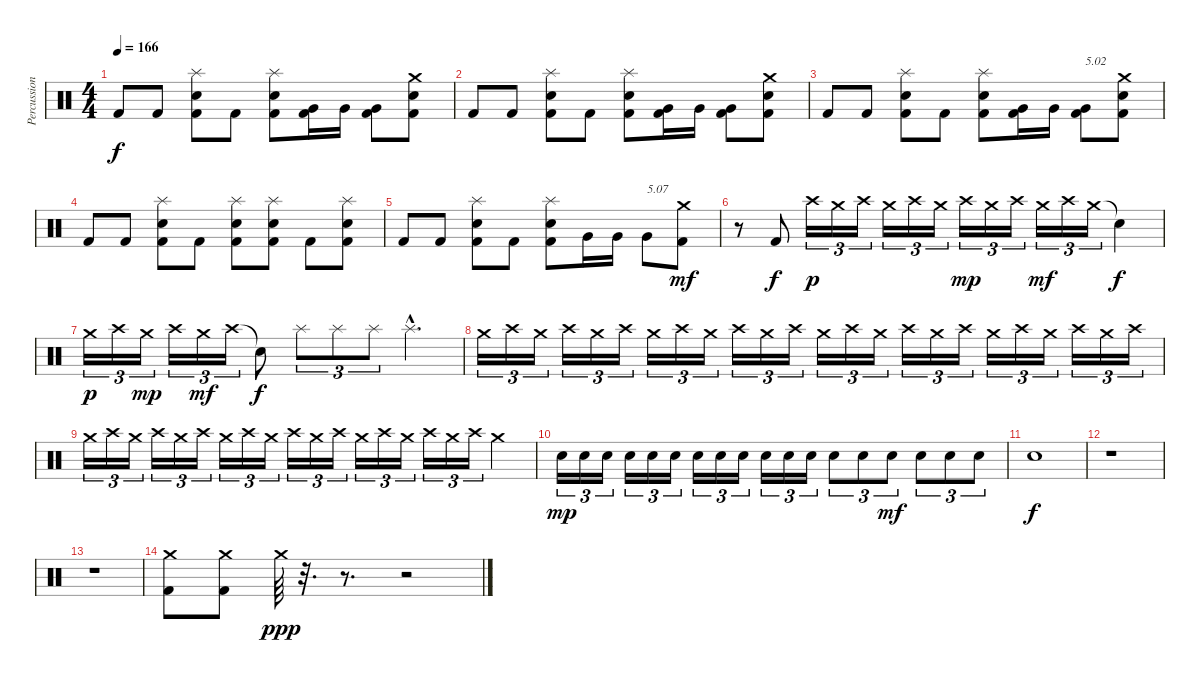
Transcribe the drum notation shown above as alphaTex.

\track ("Percussions" "Percussion") {instrument percussion}
\staff {score}
\articulation defaults
\ts (4 4)
\tempo 166
\clef neutral
\ks c "Kick (hit) 2".8{dy f} "Kick (hit) 2".8
("Kick (hit) 2" "Electric Snare (hit)" "Splash (hit)").8 "Kick (hit) 2".8 ("Kick (hit) 2" "Electric Snare (hit)" "Splash (hit)").8 ("Kick (hit) 2" "Very Low Tom (hit)").16 "Very Low Tom (hit)".16 ("Kick (hit) 2" "Very Low Tom (hit)").8 ("Kick (hit) 2" "Electric Snare (hit)" "Crash medium (hit)").8 |
"Kick (hit) 2".8 "Kick (hit) 2".8 ("Kick (hit) 2" "Electric Snare (hit)" "Splash (hit)").8 "Kick (hit) 2".8 ("Kick (hit) 2" "Electric Snare (hit)" "Splash (hit)").8 ("Kick (hit) 2" "Very Low Tom (hit)").16 "Very Low Tom (hit)".16 ("Kick (hit) 2" "Very Low Tom (hit)").8 ("Kick (hit) 2" "Electric Snare (hit)" "Crash medium (hit)").8 |
"Kick (hit) 2".8 "Kick (hit) 2".8 ("Kick (hit) 2" "Electric Snare (hit)" "Splash (hit)").8 "Kick (hit) 2".8 ("Kick (hit) 2" "Electric Snare (hit)" "Splash (hit)").8 ("Kick (hit) 2" "Very Low Tom (hit)").16 "Very Low Tom (hit)".16 ("Kick (hit) 2" "Very Low Tom (hit)").8{txt "5.02"} ("Kick (hit) 2" "Electric Snare (hit)" "Crash medium (hit)").8 |
"Kick (hit) 2".8 "Kick (hit) 2".8 ("Kick (hit) 2" "Electric Snare (hit)" "Splash (hit)").8 "Kick (hit) 2".8 ("Kick (hit) 2" "Electric Snare (hit)" "Splash (hit)").8 ("Kick (hit) 2" "Electric Snare (hit)" "Splash (hit)").8 "Kick (hit) 2".8 ("Kick (hit) 2" "Electric Snare (hit)" "Splash (hit)").8 |
"Kick (hit) 2".8 "Kick (hit) 2".8 ("Kick (hit) 2" "Electric Snare (hit)" "Splash (hit)").8 "Kick (hit) 2".8 ("Kick (hit) 2" "Electric Snare (hit)" "Splash (hit)").8 "Very Low Tom (hit)".16 "Very Low Tom (hit)".16 "Very Low Tom (hit)".8{txt "5.07"} ("Kick (hit) 2" "Crash medium (hit)").8{dy mf} |
r.8 "Kick (hit) 2".8{dy f} "Crash high (hit)".16{tu (3 2) dy p} "Crash medium (hit)".16{tu (3 2)} "Crash high (hit)".16{tu (3 2)} "Crash medium (hit)".16{tu (3 2)} "Crash high (hit)".16{tu (3 2)} "Crash medium (hit)".16{tu (3 2)} "Crash high (hit)".16{tu (3 2) dy mp} "Crash medium (hit)".16{tu (3 2)} "Crash high (hit)".16{tu (3 2)} "Crash medium (hit)".16{tu (3 2) dy mf} "Crash high (hit)".16{tu (3 2)} "Crash medium (hit)".16{tu (3 2)} "Snare (hit)"{t}.4{dy f} |
"Crash medium (hit)".16{tu (3 2) dy p} "Crash high (hit)".16{tu (3 2)} "Crash medium (hit)".16{tu (3 2) dy mp} "Crash high (hit)".16{tu (3 2)} "Crash medium (hit)".16{tu (3 2) dy mf} "Crash high (hit)".16{tu (3 2)} "Snare (hit)"{t}.8{dy f} "Splash (hit)".8{tu (3 2)} "Splash (hit)".8{tu (3 2)} "Splash (hit)".8{tu (3 2)} "Splash (hit)"{hac}.4{d} |
"Crash medium (hit)".16{tu (3 2) volume 5} "Crash high (hit)".16{tu (3 2) volume 15} "Crash medium (hit)".16{tu (3 2)} "Crash high (hit)".16{tu (3 2)} "Crash medium (hit)".16{tu (3 2)} "Crash high (hit)".16{tu (3 2)} "Crash medium (hit)".16{tu (3 2)} "Crash high (hit)".16{tu (3 2)} "Crash medium (hit)".16{tu (3 2)} "Crash high (hit)".16{tu (3 2)} "Crash medium (hit)".16{tu (3 2)} "Crash high (hit)".16{tu (3 2)} "Crash medium (hit)".16{tu (3 2)} "Crash high (hit)".16{tu (3 2)} "Crash medium (hit)".16{tu (3 2)} "Crash high (hit)".16{tu (3 2)} "Crash medium (hit)".16{tu (3 2)} "Crash high (hit)".16{tu (3 2)} "Crash medium (hit)".16{tu (3 2)} "Crash high (hit)".16{tu (3 2)} "Crash medium (hit)".16{tu (3 2)} "Crash high (hit)".16{tu (3 2)} "Crash medium (hit)".16{tu (3 2)} "Crash high (hit)".16{tu (3 2)} |
"Crash medium (hit)".16{tu (3 2)} "Crash high (hit)".16{tu (3 2)} "Crash medium (hit)".16{tu (3 2)} "Crash high (hit)".16{tu (3 2)} "Crash medium (hit)".16{tu (3 2)} "Crash high (hit)".16{tu (3 2)} "Crash medium (hit)".16{tu (3 2)} "Crash high (hit)".16{tu (3 2)} "Crash medium (hit)".16{tu (3 2)} "Crash high (hit)".16{tu (3 2)} "Crash medium (hit)".16{tu (3 2)} "Crash high (hit)".16{tu (3 2)} "Crash medium (hit)".16{tu (3 2)} "Crash high (hit)".16{tu (3 2)} "Crash medium (hit)".16{tu (3 2)} "Crash high (hit)".16{tu (3 2)} "Crash medium (hit)".16{tu (3 2)} "Crash high (hit)".16{tu (3 2)} "Crash medium (hit)".4 |
"Electric Snare (hit)".16{tu (3 2) dy mp} "Electric Snare (hit)".16{tu (3 2)} "Electric Snare (hit)".16{tu (3 2)} "Electric Snare (hit)".16{tu (3 2)} "Electric Snare (hit)".16{tu (3 2)} "Electric Snare (hit)".16{tu (3 2)} "Electric Snare (hit)".16{tu (3 2)} "Electric Snare (hit)".16{tu (3 2)} "Electric Snare (hit)".16{tu (3 2)} "Electric Snare (hit)".16{tu (3 2)} "Electric Snare (hit)".16{tu (3 2)} "Electric Snare (hit)".16{tu (3 2)} "Electric Snare (hit)".8{tu (3 2)} "Electric Snare (hit)".8{tu (3 2)} "Electric Snare (hit)".8{tu (3 2) dy mf} "Electric Snare (hit)".8{tu (3 2)} "Electric Snare (hit)".8{tu (3 2)} "Electric Snare (hit)".8{tu (3 2)} |
"Electric Snare (hit)".1{dy f} |
r.1 |
r.1 |
("Kick (hit) 2" "Crash medium (hit)").8 ("Kick (hit) 2" "Crash medium (hit)").8 "Crash medium (hit)".64{dy ppp} r.32{d} r.8{d} r.2
